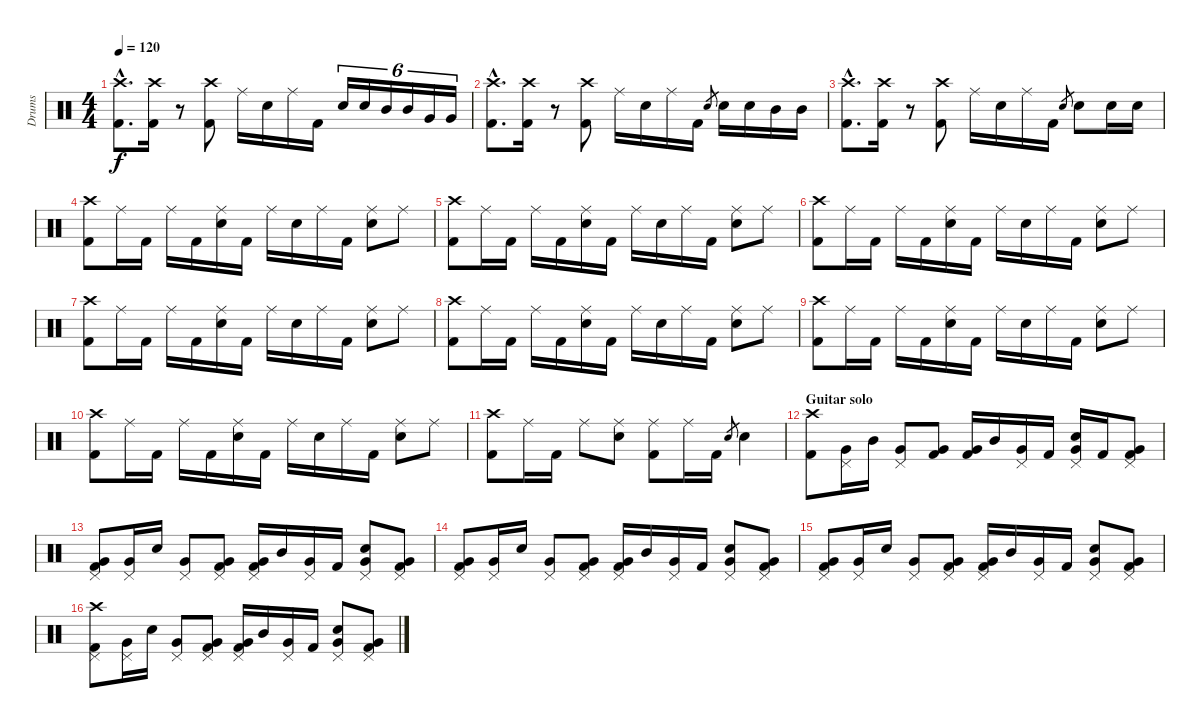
\track ("Drums" "Drums") {instrument percussion}
\staff {score}
\articulation defaults
\ts (4 4)
\tempo 120
\clef neutral
\ks c
("Crash high (hit)"{hac} "Kick (hit) 2"{hac}).8{d dy f} ("Crash high (hit)" "Kick (hit) 2").16 r.8 ("Crash high (hit)" "Kick (hit) 2").8 "Ride (middle)".16 "Electric Snare (hit)".16 "Ride (middle)".16 "Kick (hit) 2".16 "Electric Snare (hit)".16{tu (6 4)} "Electric Snare (hit)".16{tu (6 4)} "Mid Tom (hit)".16{tu (6 4)} "Mid Tom (hit)".16{tu (6 4)} "Very Low Tom (hit)".16{tu (6 4)} "Very Low Tom (hit)".16{tu (6 4)} |
("Crash high (hit)"{hac} "Kick (hit) 2"{hac}).8{d} ("Crash high (hit)" "Kick (hit) 2").16 r.8 ("Crash high (hit)" "Kick (hit) 2").8 "Ride (middle)".16 "Electric Snare (hit)".16 "Ride (middle)".16 "Kick (hit) 2".16 "Electric Snare (hit)".8{gr} "Electric Snare (hit)".16 "Electric Snare (hit)".16 "Mid Tom (hit)".16 "Mid Tom (hit)".16 |
("Crash high (hit)"{hac} "Kick (hit) 2"{hac}).8{d} ("Crash high (hit)" "Kick (hit) 2").16 r.8 ("Crash high (hit)" "Kick (hit) 2").8 "Ride (middle)".16 "Electric Snare (hit)".16 "Ride (middle)".16 "Kick (hit) 2".16 "Electric Snare (hit)".8{gr} "Electric Snare (hit)".8 "Electric Snare (hit)".16 "Electric Snare (hit)".16 |
("Crash high (hit)" "Kick (hit) 2").8 "Ride (middle)".16 "Kick (hit) 2".16 "Ride (middle)".16 "Kick (hit) 2".16 ("Ride (middle)" "Electric Snare (hit)").16 "Kick (hit) 2".16 "Ride (middle)".16 "Electric Snare (hit)".16 "Ride (middle)".16 "Kick (hit) 2".16 ("Ride (middle)" "Electric Snare (hit)").8 "Ride (middle)".8 |
("Crash high (hit)" "Kick (hit) 2").8 "Ride (middle)".16 "Kick (hit) 2".16 "Ride (middle)".16 "Kick (hit) 2".16 ("Ride (middle)" "Electric Snare (hit)").16 "Kick (hit) 2".16 "Ride (middle)".16 "Electric Snare (hit)".16 "Ride (middle)".16 "Kick (hit) 2".16 ("Ride (middle)" "Electric Snare (hit)").8 "Ride (middle)".8 |
("Crash high (hit)" "Kick (hit) 2").8 "Ride (middle)".16 "Kick (hit) 2".16 "Ride (middle)".16 "Kick (hit) 2".16 ("Ride (middle)" "Electric Snare (hit)").16 "Kick (hit) 2".16 "Ride (middle)".16 "Electric Snare (hit)".16 "Ride (middle)".16 "Kick (hit) 2".16 ("Ride (middle)" "Electric Snare (hit)").8 "Ride (middle)".8 |
("Crash high (hit)" "Kick (hit) 2").8 "Ride (middle)".16 "Kick (hit) 2".16 "Ride (middle)".16 "Kick (hit) 2".16 ("Ride (middle)" "Electric Snare (hit)").16 "Kick (hit) 2".16 "Ride (middle)".16 "Electric Snare (hit)".16 "Ride (middle)".16 "Kick (hit) 2".16 ("Ride (middle)" "Electric Snare (hit)").8 "Ride (middle)".8 |
("Crash high (hit)" "Kick (hit) 2").8 "Ride (middle)".16 "Kick (hit) 2".16 "Ride (middle)".16 "Kick (hit) 2".16 ("Ride (middle)" "Electric Snare (hit)").16 "Kick (hit) 2".16 "Ride (middle)".16 "Electric Snare (hit)".16 "Ride (middle)".16 "Kick (hit) 2".16 ("Ride (middle)" "Electric Snare (hit)").8 "Ride (middle)".8 |
("Crash high (hit)" "Kick (hit) 2").8 "Ride (middle)".16 "Kick (hit) 2".16 "Ride (middle)".16 "Kick (hit) 2".16 ("Ride (middle)" "Electric Snare (hit)").16 "Kick (hit) 2".16 "Ride (middle)".16 "Electric Snare (hit)".16 "Ride (middle)".16 "Kick (hit) 2".16 ("Ride (middle)" "Electric Snare (hit)").8 "Ride (middle)".8 |
("Crash high (hit)" "Kick (hit) 2").8 "Ride (middle)".16 "Kick (hit) 2".16 "Ride (middle)".16 "Kick (hit) 2".16 ("Ride (middle)" "Electric Snare (hit)").16 "Kick (hit) 2".16 "Ride (middle)".16 "Electric Snare (hit)".16 "Ride (middle)".16 "Kick (hit) 2".16 ("Ride (middle)" "Electric Snare (hit)").8 "Ride (middle)".8 |
("Crash high (hit)" "Kick (hit) 2").8 "Ride (middle)".16 "Kick (hit) 2".16 "Ride (middle)".8 ("Ride (middle)" "Electric Snare (hit)").8 ("Ride (middle)" "Kick (hit) 2").8 "Ride (middle)".16 "Kick (hit) 2".16 "Electric Snare (hit)".8{gr} "Electric Snare (hit)".4 |
\section ("" "Guitar solo")
("Crash high (hit)" "Kick (hit) 2").8 ("Very Low Tom (hit)" "Pedal Hi-Hat (hit)").16 "Mid Tom (hit)".16 ("Very Low Tom (hit)" "Pedal Hi-Hat (hit)").8 ("Very Low Tom (hit)" "Kick (hit) 2").8 ("Very Low Tom (hit)" "Kick (hit) 2").16 "Mid Tom (hit)".16 ("Very Low Tom (hit)" "Pedal Hi-Hat (hit)").16 "Kick (hit) 2".16 ("Electric Snare (hit)" "Very Low Tom (hit)" "Pedal Hi-Hat (hit)").16 "Kick (hit) 2".16 ("Very Low Tom (hit)" "Kick (hit) 2" "Pedal Hi-Hat (hit)").8 |
("Very Low Tom (hit)" "Kick (hit) 2" "Pedal Hi-Hat (hit)").8 ("Very Low Tom (hit)" "Pedal Hi-Hat (hit)").16 "Electric Snare (hit)".16 ("Very Low Tom (hit)" "Pedal Hi-Hat (hit)").8 ("Very Low Tom (hit)" "Kick (hit) 2" "Pedal Hi-Hat (hit)").8 ("Very Low Tom (hit)" "Kick (hit) 2" "Pedal Hi-Hat (hit)").16 "Mid Tom (hit)".16 ("Very Low Tom (hit)" "Pedal Hi-Hat (hit)").16 "Kick (hit) 2".16 ("Electric Snare (hit)" "Very Low Tom (hit)" "Pedal Hi-Hat (hit)").8 ("Very Low Tom (hit)" "Kick (hit) 2" "Pedal Hi-Hat (hit)").8 |
("Very Low Tom (hit)" "Kick (hit) 2" "Pedal Hi-Hat (hit)").8 ("Very Low Tom (hit)" "Pedal Hi-Hat (hit)").16 "Electric Snare (hit)".16 ("Very Low Tom (hit)" "Pedal Hi-Hat (hit)").8 ("Very Low Tom (hit)" "Kick (hit) 2" "Pedal Hi-Hat (hit)").8 ("Very Low Tom (hit)" "Kick (hit) 2" "Pedal Hi-Hat (hit)").16 "Mid Tom (hit)".16 ("Very Low Tom (hit)" "Pedal Hi-Hat (hit)").16 "Kick (hit) 2".16 ("Electric Snare (hit)" "Very Low Tom (hit)" "Pedal Hi-Hat (hit)").8 ("Very Low Tom (hit)" "Kick (hit) 2" "Pedal Hi-Hat (hit)").8 |
("Very Low Tom (hit)" "Kick (hit) 2" "Pedal Hi-Hat (hit)").8 ("Very Low Tom (hit)" "Pedal Hi-Hat (hit)").16 "Electric Snare (hit)".16 ("Very Low Tom (hit)" "Pedal Hi-Hat (hit)").8 ("Very Low Tom (hit)" "Kick (hit) 2" "Pedal Hi-Hat (hit)").8 ("Very Low Tom (hit)" "Kick (hit) 2" "Pedal Hi-Hat (hit)").16 "Mid Tom (hit)".16 ("Very Low Tom (hit)" "Pedal Hi-Hat (hit)").16 "Kick (hit) 2".16 ("Electric Snare (hit)" "Very Low Tom (hit)" "Pedal Hi-Hat (hit)").8 ("Very Low Tom (hit)" "Kick (hit) 2" "Pedal Hi-Hat (hit)").8 |
("Crash high (hit)" "Kick (hit) 2" "Pedal Hi-Hat (hit)").8 ("Very Low Tom (hit)" "Pedal Hi-Hat (hit)").16 "Electric Snare (hit)".16 ("Very Low Tom (hit)" "Pedal Hi-Hat (hit)").8 ("Very Low Tom (hit)" "Kick (hit) 2" "Pedal Hi-Hat (hit)").8 ("Very Low Tom (hit)" "Kick (hit) 2" "Pedal Hi-Hat (hit)").16 "Mid Tom (hit)".16 ("Very Low Tom (hit)" "Pedal Hi-Hat (hit)").16 "Kick (hit) 2".16 ("Electric Snare (hit)" "Very Low Tom (hit)" "Pedal Hi-Hat (hit)").8 ("Very Low Tom (hit)" "Kick (hit) 2" "Pedal Hi-Hat (hit)").8
